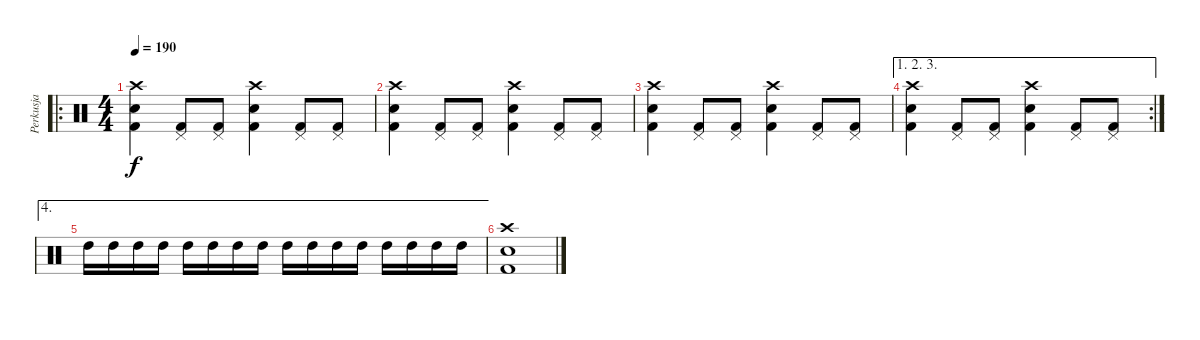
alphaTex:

\track ("Perkusja" "Perkusja") {instrument percussion}
\staff {score}
\articulation defaults
\ro
\ts (4 4)
\tempo 190
\clef neutral
\ks c
("Crash high (hit)" "Snare (hit) 2" "Kick (hit) 2").4{dy f} ("Pedal Hi-Hat (hit)" "Kick (hit) 2").8 ("Pedal Hi-Hat (hit)" "Kick (hit) 2").8 ("Crash high (hit)" "Snare (hit) 2" "Kick (hit) 2").4 ("Pedal Hi-Hat (hit)" "Kick (hit) 2").8 ("Pedal Hi-Hat (hit)" "Kick (hit) 2").8 |
("Crash high (hit)" "Snare (hit) 2" "Kick (hit) 2").4 ("Pedal Hi-Hat (hit)" "Kick (hit) 2").8 ("Pedal Hi-Hat (hit)" "Kick (hit) 2").8 ("Crash high (hit)" "Snare (hit) 2" "Kick (hit) 2").4 ("Pedal Hi-Hat (hit)" "Kick (hit) 2").8 ("Pedal Hi-Hat (hit)" "Kick (hit) 2").8 |
("Crash high (hit)" "Snare (hit) 2" "Kick (hit) 2").4 ("Pedal Hi-Hat (hit)" "Kick (hit) 2").8 ("Pedal Hi-Hat (hit)" "Kick (hit) 2").8 ("Crash high (hit)" "Snare (hit) 2" "Kick (hit) 2").4 ("Pedal Hi-Hat (hit)" "Kick (hit) 2").8 ("Pedal Hi-Hat (hit)" "Kick (hit) 2").8 |
\ae (1 2 3)
\rc 2
("Crash high (hit)" "Snare (hit) 2" "Kick (hit) 2").4 ("Pedal Hi-Hat (hit)" "Kick (hit) 2").8 ("Pedal Hi-Hat (hit)" "Kick (hit) 2").8 ("Crash high (hit)" "Snare (hit) 2" "Kick (hit) 2").4 ("Pedal Hi-Hat (hit)" "Kick (hit) 2").8 ("Pedal Hi-Hat (hit)" "Kick (hit) 2").8 |
\ae 4 "High Tom (hit)".16 "High Tom (hit)".16 "High Tom (hit)".16 "High Tom (hit)".16 "High Tom (hit)".16 "High Tom (hit)".16 "High Tom (hit)".16 "High Tom (hit)".16 "High Tom (hit)".16 "High Tom (hit)".16 "High Tom (hit)".16 "High Tom (hit)".16 "High Tom (hit)".16 "High Tom (hit)".16 "High Tom (hit)".16 "High Tom (hit)".16
|
("Crash high (hit)" "Snare (hit) 2" "Kick (hit) 2").1
